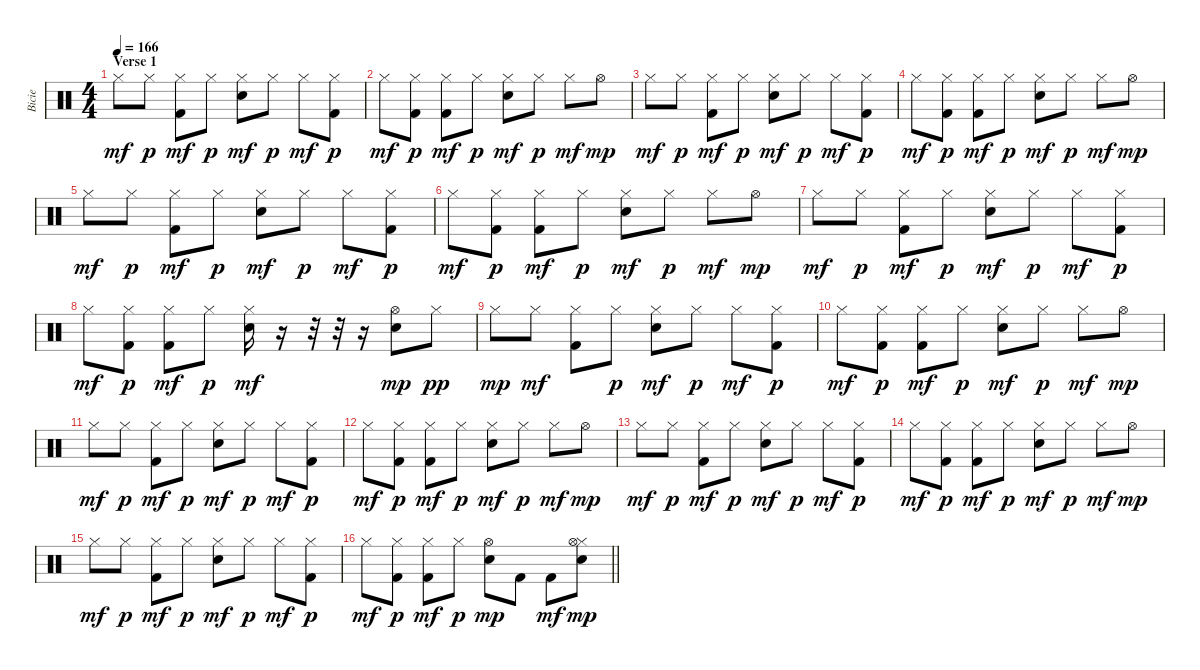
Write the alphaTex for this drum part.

\track ("Bicie" "Bicie") {instrument percussion}
\staff {score}
\articulation defaults
\ts (4 4)
\section ("" "Verse 1")
\tempo 166
\clef neutral
\ks c "Hi-Hat (closed)".8{dy mf} "Hi-Hat (closed)".8{dy p}
("Kick (hit) 2" "Hi-Hat (closed)").8{dy mf} "Hi-Hat (closed)".8{dy p} ("Electric Snare (hit)" "Hi-Hat (closed)").8{dy mf} "Hi-Hat (closed)".8{dy p} "Hi-Hat (closed)".8{dy mf} ("Kick (hit) 2" "Hi-Hat (closed)").8{dy p} |
"Hi-Hat (closed)".8{dy mf} ("Kick (hit) 2" "Hi-Hat (closed)").8{dy p} ("Kick (hit) 2" "Hi-Hat (closed)").8{dy mf} "Hi-Hat (closed)".8{dy p} ("Electric Snare (hit)" "Hi-Hat (closed)").8{dy mf} "Hi-Hat (closed)".8{dy p} "Hi-Hat (closed)".8{dy mf} "Hi-Hat (open)".8{dy mp} |
"Hi-Hat (closed)".8{dy mf} "Hi-Hat (closed)".8{dy p} ("Kick (hit) 2" "Hi-Hat (closed)").8{dy mf} "Hi-Hat (closed)".8{dy p} ("Electric Snare (hit)" "Hi-Hat (closed)").8{dy mf} "Hi-Hat (closed)".8{dy p} "Hi-Hat (closed)".8{dy mf} ("Kick (hit) 2" "Hi-Hat (closed)").8{dy p} |
"Hi-Hat (closed)".8{dy mf} ("Kick (hit) 2" "Hi-Hat (closed)").8{dy p} ("Kick (hit) 2" "Hi-Hat (closed)").8{dy mf} "Hi-Hat (closed)".8{dy p} ("Electric Snare (hit)" "Hi-Hat (closed)").8{dy mf} "Hi-Hat (closed)".8{dy p} "Hi-Hat (closed)".8{dy mf} "Hi-Hat (open)".8{dy mp} |
"Hi-Hat (closed)".8{dy mf} "Hi-Hat (closed)".8{dy p} ("Kick (hit) 2" "Hi-Hat (closed)").8{dy mf} "Hi-Hat (closed)".8{dy p} ("Electric Snare (hit)" "Hi-Hat (closed)").8{dy mf} "Hi-Hat (closed)".8{dy p} "Hi-Hat (closed)".8{dy mf} ("Kick (hit) 2" "Hi-Hat (closed)").8{dy p} |
"Hi-Hat (closed)".8{dy mf} ("Kick (hit) 2" "Hi-Hat (closed)").8{dy p} ("Kick (hit) 2" "Hi-Hat (closed)").8{dy mf} "Hi-Hat (closed)".8{dy p} ("Electric Snare (hit)" "Hi-Hat (closed)").8{dy mf} "Hi-Hat (closed)".8{dy p} "Hi-Hat (closed)".8{dy mf} "Hi-Hat (open)".8{dy mp} |
"Hi-Hat (closed)".8{dy mf} "Hi-Hat (closed)".8{dy p} ("Kick (hit) 2" "Hi-Hat (closed)").8{dy mf} "Hi-Hat (closed)".8{dy p} ("Electric Snare (hit)" "Hi-Hat (closed)").8{dy mf} "Hi-Hat (closed)".8{dy p} "Hi-Hat (closed)".8{dy mf} ("Kick (hit) 2" "Hi-Hat (closed)").8{dy p} |
"Hi-Hat (closed)".8{dy mf} ("Kick (hit) 2" "Hi-Hat (closed)").8{dy p} ("Kick (hit) 2" "Hi-Hat (closed)").8{dy mf} "Hi-Hat (closed)".8{dy p} ("Electric Snare (hit)" "Hi-Hat (closed)").16{dy mf} r.16 r.32 r.32 r.16 ("Electric Snare (hit)" "Hi-Hat (open)").8{dy mp} "Hi-Hat (closed)".8{dy pp} |
"Hi-Hat (closed)".8{dy mp} "Hi-Hat (closed)".8{dy mf} ("Kick (hit) 2" "Hi-Hat (closed)").8 "Hi-Hat (closed)".8{dy p} ("Electric Snare (hit)" "Hi-Hat (closed)").8{dy mf} "Hi-Hat (closed)".8{dy p} "Hi-Hat (closed)".8{dy mf} ("Kick (hit) 2" "Hi-Hat (closed)").8{dy p} |
"Hi-Hat (closed)".8{dy mf} ("Kick (hit) 2" "Hi-Hat (closed)").8{dy p} ("Kick (hit) 2" "Hi-Hat (closed)").8{dy mf} "Hi-Hat (closed)".8{dy p} ("Electric Snare (hit)" "Hi-Hat (closed)").8{dy mf} "Hi-Hat (closed)".8{dy p} "Hi-Hat (closed)".8{dy mf} "Hi-Hat (open)".8{dy mp} |
"Hi-Hat (closed)".8{dy mf} "Hi-Hat (closed)".8{dy p} ("Kick (hit) 2" "Hi-Hat (closed)").8{dy mf} "Hi-Hat (closed)".8{dy p} ("Electric Snare (hit)" "Hi-Hat (closed)").8{dy mf} "Hi-Hat (closed)".8{dy p} "Hi-Hat (closed)".8{dy mf} ("Kick (hit) 2" "Hi-Hat (closed)").8{dy p} |
"Hi-Hat (closed)".8{dy mf} ("Kick (hit) 2" "Hi-Hat (closed)").8{dy p} ("Kick (hit) 2" "Hi-Hat (closed)").8{dy mf} "Hi-Hat (closed)".8{dy p} ("Electric Snare (hit)" "Hi-Hat (closed)").8{dy mf} "Hi-Hat (closed)".8{dy p} "Hi-Hat (closed)".8{dy mf} "Hi-Hat (open)".8{dy mp} |
"Hi-Hat (closed)".8{dy mf} "Hi-Hat (closed)".8{dy p} ("Kick (hit) 2" "Hi-Hat (closed)").8{dy mf} "Hi-Hat (closed)".8{dy p} ("Electric Snare (hit)" "Hi-Hat (closed)").8{dy mf} "Hi-Hat (closed)".8{dy p} "Hi-Hat (closed)".8{dy mf} ("Kick (hit) 2" "Hi-Hat (closed)").8{dy p} |
"Hi-Hat (closed)".8{dy mf} ("Kick (hit) 2" "Hi-Hat (closed)").8{dy p} ("Kick (hit) 2" "Hi-Hat (closed)").8{dy mf} "Hi-Hat (closed)".8{dy p} ("Electric Snare (hit)" "Hi-Hat (closed)").8{dy mf} "Hi-Hat (closed)".8{dy p} "Hi-Hat (closed)".8{dy mf} "Hi-Hat (open)".8{dy mp} |
"Hi-Hat (closed)".8{dy mf} "Hi-Hat (closed)".8{dy p} ("Kick (hit) 2" "Hi-Hat (closed)").8{dy mf} "Hi-Hat (closed)".8{dy p} ("Electric Snare (hit)" "Hi-Hat (closed)").8{dy mf} "Hi-Hat (closed)".8{dy p} "Hi-Hat (closed)".8{dy mf} ("Kick (hit) 2" "Hi-Hat (closed)").8{dy p} |
\barLineRight lightlight "Hi-Hat (closed)".8{dy mf}
("Kick (hit) 2" "Hi-Hat (closed)").8{dy p} ("Kick (hit) 2" "Hi-Hat (closed)").8{dy mf} "Hi-Hat (closed)".8{dy p} ("Hi-Hat (open)" "Electric Snare (hit)").8{dy mp} "Kick (hit) 2".8 "Kick (hit) 2".8{dy mf} ("Hi-Hat (closed)" "Electric Snare (hit)" "Hi-Hat (open)").8{dy mp}
